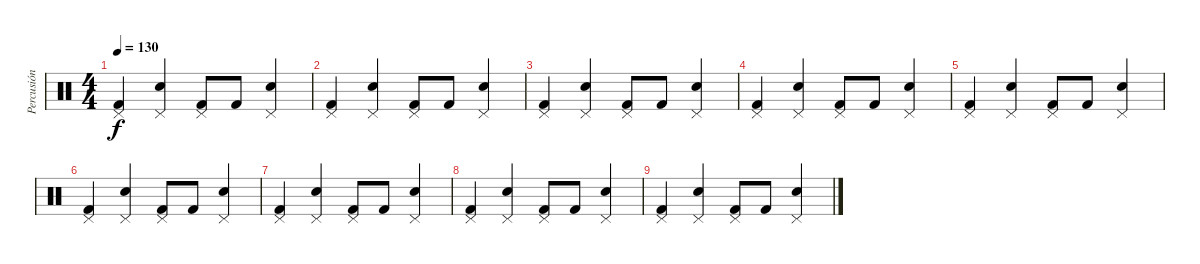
\track ("Percusión" "Percusión") {solo instrument percussion}
\staff {score}
\articulation defaults
\ts (4 4)
\tempo 130
\clef neutral
\ks c
("Kick (hit) 2" "Pedal Hi-Hat (hit)").4{dy f} ("Electric Snare (hit)" "Pedal Hi-Hat (hit)").4 ("Kick (hit) 2" "Pedal Hi-Hat (hit)").8 "Kick (hit) 2".8 ("Electric Snare (hit)" "Pedal Hi-Hat (hit)").4 |
("Kick (hit) 2" "Pedal Hi-Hat (hit)").4 ("Electric Snare (hit)" "Pedal Hi-Hat (hit)").4 ("Kick (hit) 2" "Pedal Hi-Hat (hit)").8 "Kick (hit) 2".8 ("Electric Snare (hit)" "Pedal Hi-Hat (hit)").4 |
("Kick (hit) 2" "Pedal Hi-Hat (hit)").4 ("Electric Snare (hit)" "Pedal Hi-Hat (hit)").4 ("Kick (hit) 2" "Pedal Hi-Hat (hit)").8 "Kick (hit) 2".8 ("Electric Snare (hit)" "Pedal Hi-Hat (hit)").4 |
("Kick (hit) 2" "Pedal Hi-Hat (hit)").4 ("Electric Snare (hit)" "Pedal Hi-Hat (hit)").4 ("Kick (hit) 2" "Pedal Hi-Hat (hit)").8 "Kick (hit) 2".8 ("Electric Snare (hit)" "Pedal Hi-Hat (hit)").4 |
("Kick (hit) 2" "Pedal Hi-Hat (hit)").4 ("Electric Snare (hit)" "Pedal Hi-Hat (hit)").4 ("Kick (hit) 2" "Pedal Hi-Hat (hit)").8 "Kick (hit) 2".8 ("Electric Snare (hit)" "Pedal Hi-Hat (hit)").4 |
("Kick (hit) 2" "Pedal Hi-Hat (hit)").4 ("Electric Snare (hit)" "Pedal Hi-Hat (hit)").4 ("Kick (hit) 2" "Pedal Hi-Hat (hit)").8 "Kick (hit) 2".8 ("Electric Snare (hit)" "Pedal Hi-Hat (hit)").4 |
("Kick (hit) 2" "Pedal Hi-Hat (hit)").4 ("Electric Snare (hit)" "Pedal Hi-Hat (hit)").4 ("Kick (hit) 2" "Pedal Hi-Hat (hit)").8 "Kick (hit) 2".8 ("Electric Snare (hit)" "Pedal Hi-Hat (hit)").4 |
("Kick (hit) 2" "Pedal Hi-Hat (hit)").4 ("Electric Snare (hit)" "Pedal Hi-Hat (hit)").4 ("Kick (hit) 2" "Pedal Hi-Hat (hit)").8 "Kick (hit) 2".8 ("Electric Snare (hit)" "Pedal Hi-Hat (hit)").4 |
("Kick (hit) 2" "Pedal Hi-Hat (hit)").4 ("Electric Snare (hit)" "Pedal Hi-Hat (hit)").4 ("Kick (hit) 2" "Pedal Hi-Hat (hit)").8 "Kick (hit) 2".8 ("Electric Snare (hit)" "Pedal Hi-Hat (hit)").4
